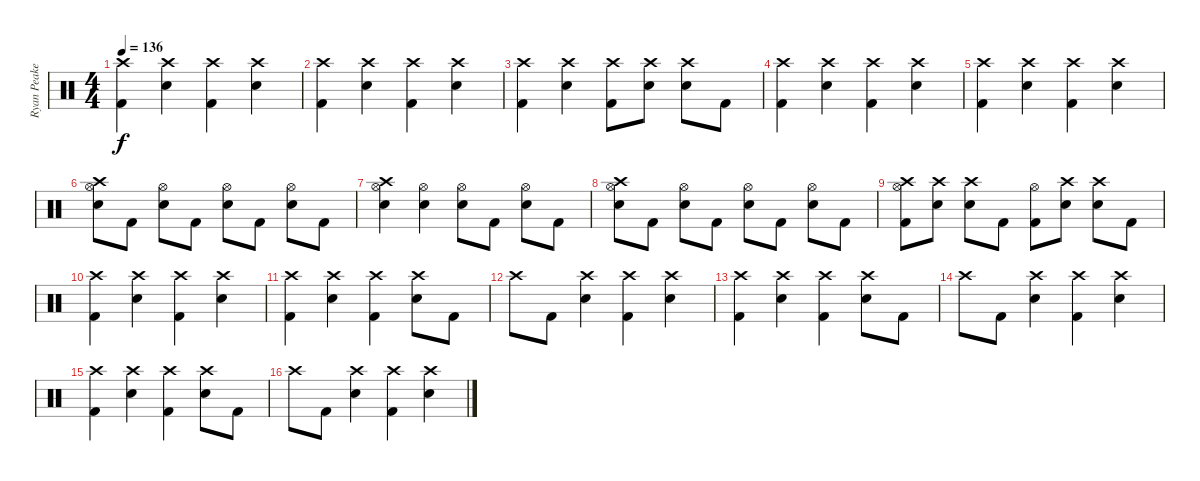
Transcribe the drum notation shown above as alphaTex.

\track ("Ryan Peake" "Ryan Peake") {instrument percussion}
\staff {score}
\articulation defaults
\ts (4 4)
\tempo 136
\clef neutral
\ks c
("Kick (hit) 2" "Crash high (hit)").4{dy f} ("Snare (hit) 2" "Crash high (hit)").4 ("Kick (hit) 2" "Crash high (hit)").4 ("Snare (hit) 2" "Crash high (hit)").4 |
("Kick (hit) 2" "Crash high (hit)").4 ("Snare (hit) 2" "Crash high (hit)").4 ("Kick (hit) 2" "Crash high (hit)").4 ("Snare (hit) 2" "Crash high (hit)").4 |
("Kick (hit) 2" "Crash high (hit)").4 ("Snare (hit) 2" "Crash high (hit)").4 ("Kick (hit) 2" "Crash high (hit)").8 ("Snare (hit) 2" "Crash high (hit)").8 ("Snare (hit) 2" "Crash high (hit)").8 "Kick (hit) 2".8 |
("Kick (hit) 2" "Crash high (hit)").4 ("Snare (hit) 2" "Crash high (hit)").4 ("Kick (hit) 2" "Crash high (hit)").4 ("Snare (hit) 2" "Crash high (hit)").4 |
("Kick (hit) 2" "Crash high (hit)").4 ("Snare (hit) 2" "Crash high (hit)").4 ("Kick (hit) 2" "Crash high (hit)").4 ("Snare (hit) 2" "Crash high (hit)").4 |
("Snare (hit) 2" "Hi-Hat (open)" "Crash high (hit)").8 "Kick (hit) 2".8 ("Snare (hit) 2" "Hi-Hat (open)").8 "Kick (hit) 2".8 ("Snare (hit) 2" "Hi-Hat (open)").8 "Kick (hit) 2".8 ("Snare (hit) 2" "Hi-Hat (open)").8 "Kick (hit) 2".8 |
("Snare (hit) 2" "Hi-Hat (open)" "Crash high (hit)").4 ("Snare (hit) 2" "Hi-Hat (open)").4 ("Snare (hit) 2" "Hi-Hat (open)").8 "Kick (hit) 2".8 ("Snare (hit) 2" "Hi-Hat (open)").8 "Kick (hit) 2".8 |
("Snare (hit) 2" "Hi-Hat (open)" "Crash high (hit)").8 "Kick (hit) 2".8 ("Snare (hit) 2" "Hi-Hat (open)").8 "Kick (hit) 2".8 ("Snare (hit) 2" "Hi-Hat (open)").8 "Kick (hit) 2".8 ("Snare (hit) 2" "Hi-Hat (open)").8 "Kick (hit) 2".8 |
("Kick (hit) 2" "Hi-Hat (open)" "Crash high (hit)").8 ("Snare (hit) 2" "Crash high (hit)").8 ("Snare (hit) 2" "Crash high (hit)").8 "Kick (hit) 2".8 ("Kick (hit) 2" "Hi-Hat (open)").8 ("Snare (hit) 2" "Crash high (hit)").8 ("Snare (hit) 2" "Crash high (hit)").8 "Kick (hit) 2".8 |
("Kick (hit) 2" "Crash high (hit)").4 ("Snare (hit) 2" "Crash high (hit)").4 ("Kick (hit) 2" "Crash high (hit)").4 ("Snare (hit) 2" "Crash high (hit)").4 |
("Kick (hit) 2" "Crash high (hit)").4 ("Snare (hit) 2" "Crash high (hit)").4 ("Kick (hit) 2" "Crash high (hit)").4 ("Snare (hit) 2" "Crash high (hit)").8 "Kick (hit) 2".8 |
"Crash high (hit)".8 "Kick (hit) 2".8 ("Snare (hit) 2" "Crash high (hit)").4 ("Kick (hit) 2" "Crash high (hit)").4 ("Snare (hit) 2" "Crash high (hit)").4 |
("Kick (hit) 2" "Crash high (hit)").4 ("Snare (hit) 2" "Crash high (hit)").4 ("Kick (hit) 2" "Crash high (hit)").4 ("Snare (hit) 2" "Crash high (hit)").8 "Kick (hit) 2".8 |
"Crash high (hit)".8 "Kick (hit) 2".8 ("Snare (hit) 2" "Crash high (hit)").4 ("Kick (hit) 2" "Crash high (hit)").4 ("Snare (hit) 2" "Crash high (hit)").4 |
("Kick (hit) 2" "Crash high (hit)").4 ("Snare (hit) 2" "Crash high (hit)").4 ("Kick (hit) 2" "Crash high (hit)").4 ("Snare (hit) 2" "Crash high (hit)").8 "Kick (hit) 2".8 |
"Crash high (hit)".8 "Kick (hit) 2".8 ("Snare (hit) 2" "Crash high (hit)").4 ("Kick (hit) 2" "Crash high (hit)").4 ("Snare (hit) 2" "Crash high (hit)").4
